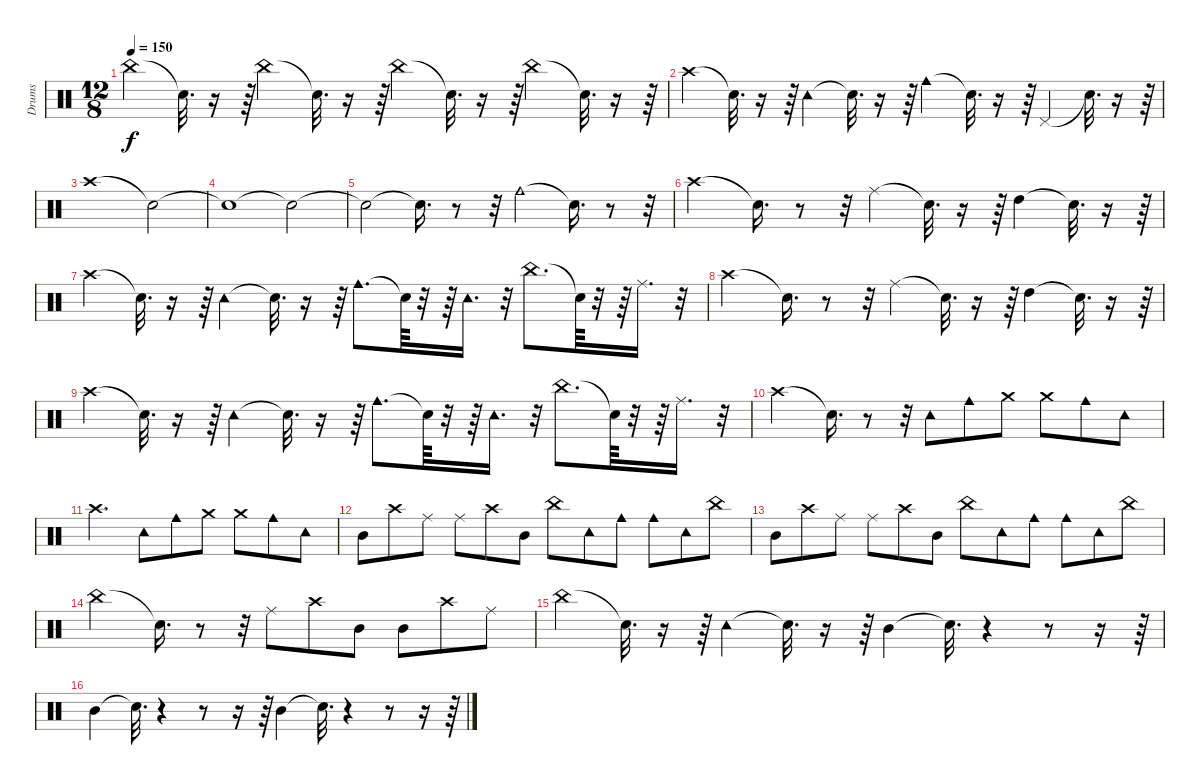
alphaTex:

\track ("Drums" "Drums") {instrument percussion}
\staff {score}
\articulation defaults
\ts (12 8)
\tempo 150
\clef neutral
\ks c "China (hit)".4{dy f} "Snare (hit)"{t}.32{d}
r.16 r.64 "China (hit)".4 "Snare (hit)"{t}.32{d} r.16 r.64 "China (hit)".4 "Snare (hit)"{t}.32{d} r.16 r.64 "China (hit)".4 "Snare (hit)"{t}.32{d} r.16 r.64 |
"Crash high (hit)".4 "Snare (hit)"{t}.32{d} r.16 r.64 "Tambourine (hit)".4 "Snare (hit)"{t}.32{d} r.16 r.64 "Cowbell medium (hit)".4 "Snare (hit)"{t}.32{d} r.16 r.64 "Pedal Hi-Hat (hit)".4 "Snare (hit)"{t}.32{d} r.16 r.64 |
"Crash high (hit)".1 "Snare (hit)"{t}.2 |
"Snare (hit)"{t}.1 "Snare (hit)"{t}.2 |
"Snare (hit)"{t}.2 "Snare (hit)"{t}.16{d} r.8 r.32 "Cowbell medium (hit)".2 "Snare (hit)"{t}.16{d} r.8 r.32 |
"Crash high (hit)".2 "Snare (hit)"{t}.16{d} r.8 r.32 "Ride (middle)".4 "Snare (hit)"{t}.32{d} r.16 r.64 "High Tom (hit)".4 "Snare (hit)"{t}.32{d} r.16 r.64 |
"Crash high (hit)".4 "Snare (hit)"{t}.32{d} r.16 r.64 "Tambourine (hit)".4 "Snare (hit)"{t}.32{d} r.16 r.64 "Cowbell medium (hit)".8{d} "Snare (hit)"{t}.64 r.32 r.64 "Tambourine (hit)".16{d} r.32 "China (hit)".8{d} "Snare (hit)"{t}.64 r.32 r.64 "Ride (middle)".16{d} r.32 |
"Crash high (hit)".2 "Snare (hit)"{t}.16{d} r.8 r.32 "Ride (middle)".4 "Snare (hit)"{t}.32{d} r.16 r.64 "High Tom (hit)".4 "Snare (hit)"{t}.32{d} r.16 r.64 |
"Crash high (hit)".4 "Snare (hit)"{t}.32{d} r.16 r.64 "Tambourine (hit)".4 "Snare (hit)"{t}.32{d} r.16 r.64 "Cowbell medium (hit)".8{d} "Snare (hit)"{t}.64 r.32 r.64 "Tambourine (hit)".16{d} r.32 "China (hit)".8{d} "Snare (hit)"{t}.64 r.32 r.64 "Ride (middle)".16{d} r.32 |
"Crash high (hit)".2 "Snare (hit)"{t}.16{d} r.8 r.32 "Tambourine (hit)".8 "Cowbell medium (hit)".8 "Crash medium (hit)".8 "Crash medium (hit)".8 "Cowbell medium (hit)".8 "Tambourine (hit)".8 |
"Crash high (hit)".2{d} "Tambourine (hit)".8 "Cowbell medium (hit)".8 "Crash medium (hit)".8 "Crash medium (hit)".8 "Cowbell medium (hit)".8 "Tambourine (hit)".8 |
"Mid Tom (hit)".8 "Crash high (hit)".8 "Ride (middle)".8 "Ride (middle)".8 "Crash high (hit)".8 "Mid Tom (hit)".8 "China (hit)".8 "Tambourine (hit)".8 "Cowbell medium (hit)".8 "Cowbell medium (hit)".8 "Tambourine (hit)".8 "China (hit)".8 |
"Mid Tom (hit)".8 "Crash high (hit)".8 "Ride (middle)".8 "Ride (middle)".8 "Crash high (hit)".8 "Mid Tom (hit)".8 "China (hit)".8 "Tambourine (hit)".8 "Cowbell medium (hit)".8 "Cowbell medium (hit)".8 "Tambourine (hit)".8 "China (hit)".8 |
"China (hit)".2 "Snare (hit)"{t}.16{d} r.8 r.32 "Ride (middle)".8 "Crash high (hit)".8 "Mid Tom (hit)".8 "Mid Tom (hit)".8 "Crash high (hit)".8 "Ride (middle)".8 |
"China (hit)".4 "Snare (hit)"{t}.32{d} r.16 r.64 "Tambourine (hit)".4 "Snare (hit)"{t}.32{d} r.16 r.64 "Mid Tom (hit)".4 "Snare (hit)"{t}.32{d} r.4 r.8 r.16 r.64 |
"Mid Tom (hit)".4 "Snare (hit)"{t}.32{d} r.4 r.8 r.16 r.64 "Mid Tom (hit)".4 "Snare (hit)"{t}.32{d} r.4 r.8 r.16 r.64
